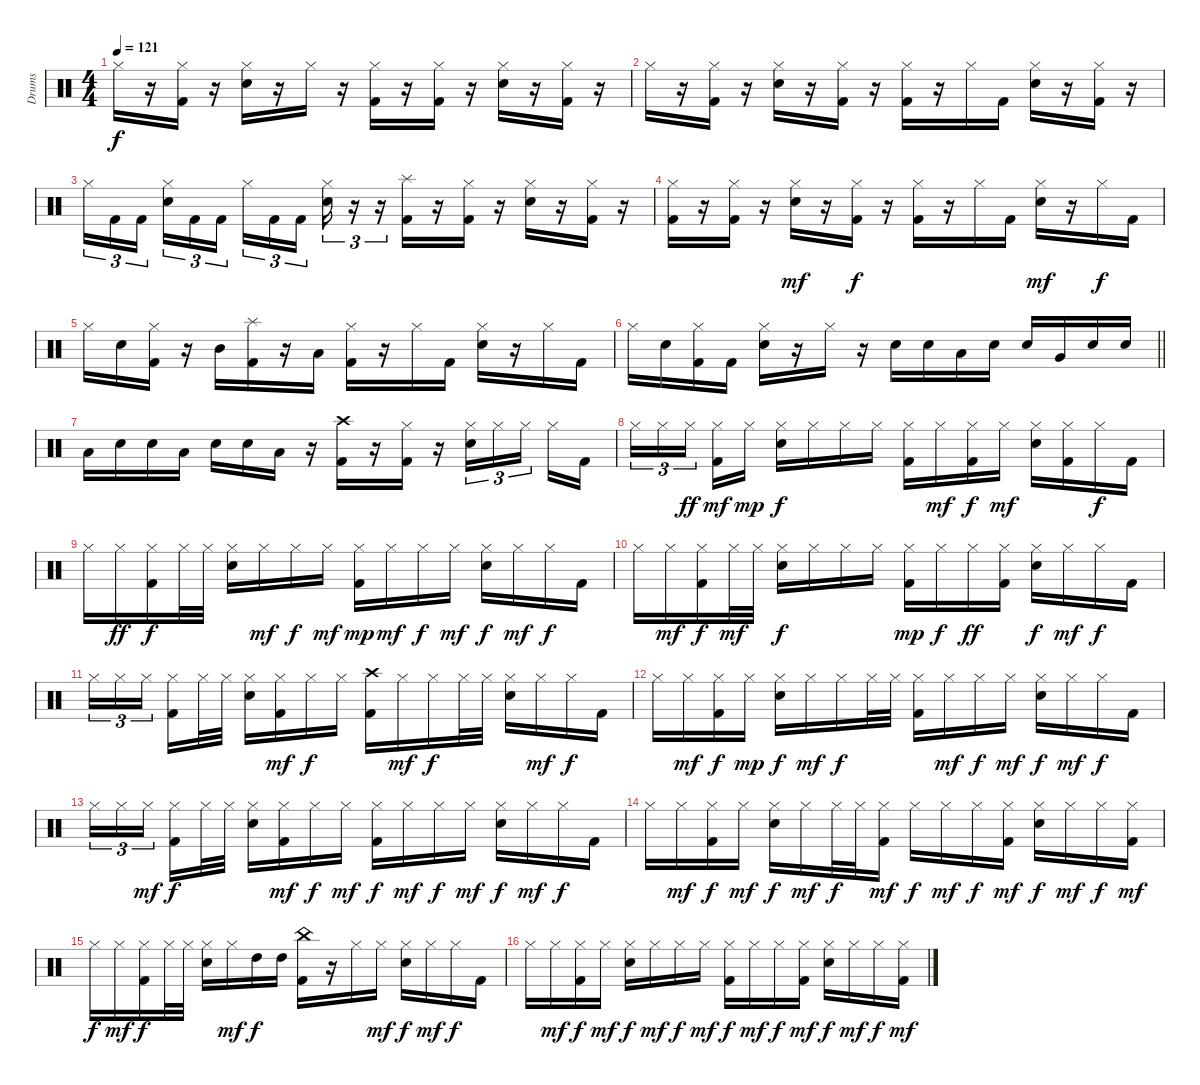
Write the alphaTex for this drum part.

\track ("Drums" "Drums") {instrument percussion}
\staff {score}
\articulation defaults
\ts (4 4)
\tempo 121
\clef neutral
\ks c "Hi-Hat (closed)".16{dy f}
r.16 ("Hi-Hat (closed)" "Kick (hit) 2").16 r.16 ("Hi-Hat (closed)" "Snare (hit) 2").16 r.16 "Hi-Hat (closed)".16 r.16 ("Hi-Hat (closed)" "Kick (hit) 2").16 r.16 ("Hi-Hat (closed)" "Kick (hit) 2").16 r.16 ("Hi-Hat (closed)" "Snare (hit) 2").16 r.16 ("Hi-Hat (closed)" "Kick (hit) 2").16 r.16 |
"Hi-Hat (closed)".16 r.16 ("Hi-Hat (closed)" "Kick (hit) 2").16 r.16 ("Hi-Hat (closed)" "Snare (hit) 2").16 r.16 ("Hi-Hat (closed)" "Kick (hit) 2").16 r.16 ("Hi-Hat (closed)" "Kick (hit) 2").16 r.16 "Hi-Hat (closed)".16 "Kick (hit) 2".16 ("Hi-Hat (closed)" "Snare (hit) 2").16 r.16 ("Hi-Hat (closed)" "Kick (hit) 2").16 r.16 |
"Hi-Hat (closed)".16{tu (3 2)} "Kick (hit) 2".16{tu (3 2)} "Kick (hit) 2".16{tu (3 2) beam splitsecondary} ("Hi-Hat (closed)" "Snare (hit) 2").16{tu (3 2)} "Kick (hit) 2".16{tu (3 2)} "Kick (hit) 2".16{tu (3 2)} "Hi-Hat (closed)".16{tu (3 2)} "Kick (hit) 2".16{tu (3 2)} "Kick (hit) 2".16{tu (3 2) beam splitsecondary} ("Hi-Hat (closed)" "Snare (hit) 2").16{tu (3 2)} r.16{tu (3 2)} r.16{tu (3 2)} ("Splash (hit)" "Kick (hit) 2").16 r.16 ("Hi-Hat (closed)" "Kick (hit) 2").16 r.16 ("Hi-Hat (closed)" "Snare (hit) 2").16 r.16 ("Hi-Hat (closed)" "Kick (hit) 2").16 r.16 |
("Hi-Hat (closed)" "Kick (hit) 2").16 r.16 ("Hi-Hat (closed)" "Kick (hit) 2").16 r.16 ("Hi-Hat (closed)" "Snare (hit) 2").16{dy mf} r.16 ("Hi-Hat (closed)" "Kick (hit) 2").16{dy f} r.16 ("Hi-Hat (closed)" "Kick (hit) 2").16 r.16 "Hi-Hat (closed)".16 "Kick (hit) 2".16 ("Hi-Hat (closed)" "Snare (hit) 2").16{dy mf} r.16 "Hi-Hat (closed)".16{dy f} "Kick (hit) 2".16 |
"Hi-Hat (closed)".16 "Snare (hit) 2".16 ("Hi-Hat (closed)" "Kick (hit) 2").16 r.16 "Mid Tom (hit)".16 ("Splash (hit)" "Kick (hit) 2").16 r.16 "Low Tom (hit)".16 ("Hi-Hat (closed)" "Kick (hit) 2").16 r.16 "Hi-Hat (closed)".16 "Kick (hit) 2".16 ("Hi-Hat (closed)" "Snare (hit) 2").16 r.16 "Hi-Hat (closed)".16 "Kick (hit) 2".16 |
\barLineRight lightlight "Hi-Hat (closed)".16 "Snare (hit) 2".16
("Hi-Hat (closed)" "Kick (hit) 2").16 "Kick (hit) 2".16 ("Hi-Hat (closed)" "Snare (hit) 2").16 r.16 "Hi-Hat (closed)".16 r.16 "Snare (hit) 2".16 "Snare (hit) 2".16 "Low Tom (hit)".16 "Snare (hit) 2".16 "Snare (hit) 2".16 "Very Low Tom (hit)".16 "Snare (hit) 2".16 "Snare (hit) 2".16 |
\section ("" "")
"Low Floor Tom (hit)".16 "Snare (hit) 2".16 "Snare (hit) 2".16 "Low Floor Tom (hit)".16 "Snare (hit) 2".16 "Snare (hit) 2".16 "Low Tom (hit)".16 r.16 ("Crash high (hit)" "Kick (hit) 2").16 r.16 ("Hi-Hat (closed)" "Kick (hit) 2").16 r.16 ("Hi-Hat (closed)" "Snare (hit) 2").16{tu (3 2)} "Hi-Hat (closed)".16{tu (3 2)} "Hi-Hat (closed)".16{tu (3 2) beam splitsecondary} "Hi-Hat (closed)".16 "Kick (hit) 2".16 |
"Hi-Hat (closed)".16{tu (3 2)} "Hi-Hat (closed)".16{tu (3 2)} "Hi-Hat (closed)".16{tu (3 2) dy ff beam splitsecondary} ("Hi-Hat (closed)" "Kick (hit) 2").16{dy mf} "Hi-Hat (closed)".16{dy mp} ("Hi-Hat (closed)" "Snare (hit) 2").16{dy f} "Hi-Hat (closed)".16 "Hi-Hat (closed)".16 "Hi-Hat (closed)".16 ("Hi-Hat (closed)" "Kick (hit) 2").16 "Hi-Hat (closed)".16{dy mf} ("Hi-Hat (closed)" "Kick (hit) 2").16{dy f} "Hi-Hat (closed)".16{dy mf} ("Hi-Hat (closed)" "Snare (hit) 2").16 ("Hi-Hat (closed)" "Kick (hit) 2").16 "Hi-Hat (closed)".16{dy f} "Kick (hit) 2".16 |
"Hi-Hat (closed)".16 "Hi-Hat (closed)".16{dy ff} ("Hi-Hat (closed)" "Kick (hit) 2").16{dy f} "Hi-Hat (closed)".32 "Hi-Hat (closed)".32 ("Hi-Hat (closed)" "Snare (hit) 2").16 "Hi-Hat (closed)".16{dy mf} "Hi-Hat (closed)".16{dy f} "Hi-Hat (closed)".16{dy mf} ("Hi-Hat (closed)" "Kick (hit) 2").16{dy mp} "Hi-Hat (closed)".16{dy mf} "Hi-Hat (closed)".16{dy f} "Hi-Hat (closed)".16{dy mf} ("Hi-Hat (closed)" "Snare (hit) 2").16{dy f} "Hi-Hat (closed)".16{dy mf} "Hi-Hat (closed)".16{dy f} "Kick (hit) 2".16 |
"Hi-Hat (closed)".16 "Hi-Hat (closed)".16{dy mf} ("Hi-Hat (closed)" "Kick (hit) 2").16{dy f} "Hi-Hat (closed)".32{dy mf} "Hi-Hat (closed)".32 ("Hi-Hat (closed)" "Snare (hit) 2").16{dy f} "Hi-Hat (closed)".16 "Hi-Hat (closed)".16 "Hi-Hat (closed)".16 ("Hi-Hat (closed)" "Kick (hit) 2").16{dy mp} "Hi-Hat (closed)".16{dy f} "Hi-Hat (closed)".16{dy ff} ("Hi-Hat (closed)" "Kick (hit) 2").16 ("Hi-Hat (closed)" "Snare (hit) 2").16{dy f} "Hi-Hat (closed)".16{dy mf} "Hi-Hat (closed)".16{dy f} "Kick (hit) 2".16 |
"Hi-Hat (closed)".16{tu (3 2)} "Hi-Hat (closed)".16{tu (3 2)} "Hi-Hat (closed)".16{tu (3 2) beam splitsecondary} ("Hi-Hat (closed)" "Kick (hit) 2").16 "Hi-Hat (closed)".32 "Hi-Hat (closed)".32 ("Hi-Hat (closed)" "Snare (hit) 2").16 ("Hi-Hat (closed)" "Kick (hit) 2").16{dy mf} "Hi-Hat (closed)".16{dy f} "Hi-Hat (closed)".16 ("Crash high (hit)" "Kick (hit) 2").16 "Hi-Hat (closed)".16{dy mf} "Hi-Hat (closed)".16{dy f} "Hi-Hat (closed)".32 "Hi-Hat (closed)".32 ("Hi-Hat (closed)" "Snare (hit) 2").16 "Hi-Hat (closed)".16{dy mf} "Hi-Hat (closed)".16{dy f} "Kick (hit) 2".16 |
"Hi-Hat (closed)".16 "Hi-Hat (closed)".16{dy mf} ("Hi-Hat (closed)" "Kick (hit) 2").16{dy f} "Hi-Hat (closed)".16{dy mp} ("Hi-Hat (closed)" "Snare (hit) 2").16{dy f} "Hi-Hat (closed)".16{dy mf} "Hi-Hat (closed)".16{dy f} "Hi-Hat (closed)".32 "Hi-Hat (closed)".32 ("Hi-Hat (closed)" "Kick (hit) 2").16 "Hi-Hat (closed)".16{dy mf} "Hi-Hat (closed)".16{dy f} "Hi-Hat (closed)".16{dy mf} ("Hi-Hat (closed)" "Snare (hit) 2").16{dy f} "Hi-Hat (closed)".16{dy mf} "Hi-Hat (closed)".16{dy f} "Kick (hit) 2".16 |
"Hi-Hat (closed)".16{tu (3 2)} "Hi-Hat (closed)".16{tu (3 2)} "Hi-Hat (closed)".16{tu (3 2) dy mf beam splitsecondary} ("Hi-Hat (closed)" "Kick (hit) 2").16{dy f} "Hi-Hat (closed)".32 "Hi-Hat (closed)".32 ("Hi-Hat (closed)" "Snare (hit) 2").16 ("Hi-Hat (closed)" "Kick (hit) 2").16{dy mf} "Hi-Hat (closed)".16{dy f} "Hi-Hat (closed)".16{dy mf} ("Hi-Hat (closed)" "Kick (hit) 2").16{dy f} "Hi-Hat (closed)".16{dy mf} "Hi-Hat (closed)".16{dy f} "Hi-Hat (closed)".16{dy mf} ("Hi-Hat (closed)" "Snare (hit) 2").16{dy f} "Hi-Hat (closed)".16{dy mf} "Hi-Hat (closed)".16{dy f} "Kick (hit) 2".16 |
"Hi-Hat (closed)".16 "Hi-Hat (closed)".16{dy mf} ("Hi-Hat (closed)" "Kick (hit) 2").16{dy f} "Hi-Hat (closed)".16{dy mf} ("Hi-Hat (closed)" "Snare (hit) 2").16{dy f} "Hi-Hat (closed)".16{dy mf} "Hi-Hat (closed)".32{dy f} "Hi-Hat (closed)".32 ("Hi-Hat (closed)" "Kick (hit) 2").16{dy mf} "Hi-Hat (closed)".16{dy f} "Hi-Hat (closed)".16{dy mf} "Hi-Hat (closed)".16{dy f} ("Hi-Hat (closed)" "Kick (hit) 2").16{dy mf} ("Hi-Hat (closed)" "Snare (hit) 2").16{dy f} "Hi-Hat (closed)".16{dy mf} "Hi-Hat (closed)".16{dy f} ("Hi-Hat (closed)" "Kick (hit) 2").16{dy mf} |
"Hi-Hat (closed)".16{dy f} "Hi-Hat (closed)".16{dy mf} ("Hi-Hat (closed)" "Kick (hit) 2").16{dy f} "Hi-Hat (closed)".32 "Hi-Hat (closed)".32 ("Hi-Hat (closed)" "Snare (hit) 2").16 "Hi-Hat (closed)".16{dy mf} "High Tom (hit)".16{dy f} "High Tom (hit)".16 ("China (hit)" "Kick (hit) 2").16 r.16 "Hi-Hat (closed)".16 "Hi-Hat (closed)".16{dy mf} ("Hi-Hat (closed)" "Snare (hit) 2").16{dy f} "Hi-Hat (closed)".16{dy mf} "Hi-Hat (closed)".16{dy f} "Kick (hit) 2".16 |
"Hi-Hat (closed)".16 "Hi-Hat (closed)".16{dy mf} ("Hi-Hat (closed)" "Kick (hit) 2").16{dy f} "Hi-Hat (closed)".16{dy mf} ("Hi-Hat (closed)" "Snare (hit) 2").16{dy f} "Hi-Hat (closed)".16{dy mf} "Hi-Hat (closed)".16{dy f} "Hi-Hat (closed)".16{dy mf} ("Hi-Hat (closed)" "Kick (hit) 2").16{dy f} "Hi-Hat (closed)".16{dy mf} "Hi-Hat (closed)".16{dy f} ("Hi-Hat (closed)" "Kick (hit) 2").16{dy mf} ("Hi-Hat (closed)" "Snare (hit) 2").16{dy f} "Hi-Hat (closed)".16{dy mf} "Hi-Hat (closed)".16{dy f} ("Hi-Hat (closed)" "Kick (hit) 2").16{dy mf}
